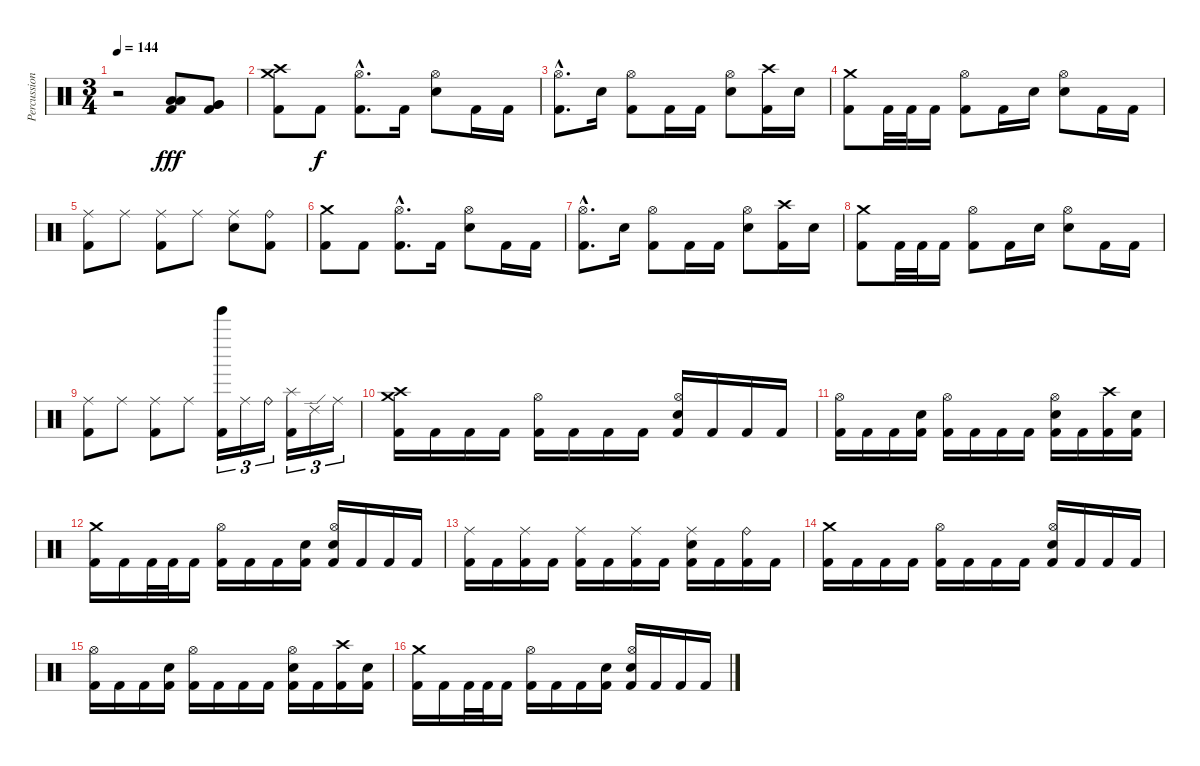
\track ("Percussion" "Percussion") {instrument percussion}
\staff {score}
\articulation defaults
\ts (3 4)
\tempo 144
\clef neutral
\ks c
r.2{dy f} ("Low Tom (hit)" "Low Tom (hit)" "Kick (hit) 2").8{dy fff} ("Very Low Tom (hit)" "Very Low Tom (hit)" "Kick (hit) 2").8 |
("Crash medium (hit)" "Crash high (hit)" "Kick (hit) 2").8 "Kick (hit) 2".8{dy f} ("Hi-Hat (open)"{hac} "Kick (hit) 2"{hac}).8{d} "Kick (hit) 2".16 ("Hi-Hat (open)" "Electric Snare (hit)").8 "Kick (hit) 2".16 "Kick (hit) 2".16 |
("Hi-Hat (open)"{hac} "Kick (hit) 2"{hac}).8{d} "Electric Snare (hit)".16 ("Hi-Hat (open)" "Kick (hit) 2").8 "Kick (hit) 2".16 "Kick (hit) 2".16 ("Hi-Hat (open)" "Electric Snare (hit)").8 ("Crash high (hit)" "Kick (hit) 2").16 "Electric Snare (hit)".16 |
("Crash medium (hit)" "Kick (hit) 2").8 "Kick (hit) 2".32 "Kick (hit) 2".32 "Kick (hit) 2".16 ("Hi-Hat (open)" "Kick (hit) 2").8 "Kick (hit) 2".16 "Electric Snare (hit)".16 ("Hi-Hat (open)" "Electric Snare (hit)").8 "Kick (hit) 2".16 "Kick (hit) 2".16 |
("Ride (middle)" "Kick (hit) 2").8 "Ride (middle)".8 ("Ride (middle)" "Kick (hit) 2").8 "Ride (middle)".8 ("Ride (middle)" "Electric Snare (hit)").8 ("Ride (bell)" "Kick (hit) 2").8 |
("Crash medium (hit)" "Kick (hit) 2").8 "Kick (hit) 2".8 ("Hi-Hat (open)"{hac} "Kick (hit) 2"{hac}).8{d} "Kick (hit) 2".16 ("Hi-Hat (open)" "Electric Snare (hit)").8 "Kick (hit) 2".16 "Kick (hit) 2".16 |
("Hi-Hat (open)"{hac} "Kick (hit) 2"{hac}).8{d} "Electric Snare (hit)".16 ("Hi-Hat (open)" "Kick (hit) 2").8 "Kick (hit) 2".16 "Kick (hit) 2".16 ("Hi-Hat (open)" "Electric Snare (hit)").8 ("Crash high (hit)" "Kick (hit) 2").16 "Electric Snare (hit)".16 |
("Crash medium (hit)" "Kick (hit) 2").8 "Kick (hit) 2".32 "Kick (hit) 2".32 "Kick (hit) 2".16 ("Hi-Hat (open)" "Kick (hit) 2").8 "Kick (hit) 2".16 "Electric Snare (hit)".16 ("Hi-Hat (open)" "Electric Snare (hit)").8 "Kick (hit) 2".16 "Kick (hit) 2".16 |
("Ride (middle)" "Kick (hit) 2").8 "Ride (middle)".8 ("Ride (middle)" "Kick (hit) 2").8 "Ride (middle)".8 ("Tinkle Bell (hit)" "Kick (hit) 2").16{tu (3 2)} "Ride (middle)".16{tu (3 2)} "Ride (bell)".16{tu (3 2)} ("Splash (hit)" "Kick (hit) 2").16{tu (3 2)} "Ride (edge) 2".16{tu (3 2)} "Ride (middle)".16{tu (3 2)} |
("Crash medium (hit)" "Crash high (hit)" "Kick (hit) 2").16 "Kick (hit) 2".16 "Kick (hit) 2".16 "Kick (hit) 2".16 ("Hi-Hat (open)" "Kick (hit) 2").16 "Kick (hit) 2".16 "Kick (hit) 2".16 "Kick (hit) 2".16 ("Hi-Hat (open)" "Electric Snare (hit)" "Kick (hit) 2").16 "Kick (hit) 2".16 "Kick (hit) 2".16 "Kick (hit) 2".16 |
("Hi-Hat (open)" "Kick (hit) 2").16 "Kick (hit) 2".16 "Kick (hit) 2".16 ("Electric Snare (hit)" "Kick (hit) 2").16 ("Hi-Hat (open)" "Kick (hit) 2").16 "Kick (hit) 2".16 "Kick (hit) 2".16 "Kick (hit) 2".16 ("Hi-Hat (open)" "Electric Snare (hit)" "Kick (hit) 2").16 "Kick (hit) 2".16 ("Crash high (hit)" "Kick (hit) 2").16 ("Electric Snare (hit)" "Kick (hit) 2").16 |
("Crash medium (hit)" "Kick (hit) 2").16 "Kick (hit) 2".16 "Kick (hit) 2".32 "Kick (hit) 2".32 "Kick (hit) 2".16 ("Hi-Hat (open)" "Kick (hit) 2").16 "Kick (hit) 2".16 "Kick (hit) 2".16 ("Electric Snare (hit)" "Kick (hit) 2").16 ("Hi-Hat (open)" "Electric Snare (hit)" "Kick (hit) 2").16 "Kick (hit) 2".16 "Kick (hit) 2".16 "Kick (hit) 2".16 |
("Ride (middle)" "Kick (hit) 2").16 "Kick (hit) 2".16 ("Ride (middle)" "Kick (hit) 2").16 "Kick (hit) 2".16 ("Ride (middle)" "Kick (hit) 2").16 "Kick (hit) 2".16 ("Ride (middle)" "Kick (hit) 2").16 "Kick (hit) 2".16 ("Ride (middle)" "Electric Snare (hit)" "Kick (hit) 2").16 "Kick (hit) 2".16 ("Ride (bell)" "Kick (hit) 2").16 "Kick (hit) 2".16 |
("Crash medium (hit)" "Kick (hit) 2").16 "Kick (hit) 2".16 "Kick (hit) 2".16 "Kick (hit) 2".16 ("Hi-Hat (open)" "Kick (hit) 2").16 "Kick (hit) 2".16 "Kick (hit) 2".16 "Kick (hit) 2".16 ("Hi-Hat (open)" "Electric Snare (hit)" "Kick (hit) 2").16 "Kick (hit) 2".16 "Kick (hit) 2".16 "Kick (hit) 2".16 |
("Hi-Hat (open)" "Kick (hit) 2").16 "Kick (hit) 2".16 "Kick (hit) 2".16 ("Electric Snare (hit)" "Kick (hit) 2").16 ("Hi-Hat (open)" "Kick (hit) 2").16 "Kick (hit) 2".16 "Kick (hit) 2".16 "Kick (hit) 2".16 ("Hi-Hat (open)" "Electric Snare (hit)" "Kick (hit) 2").16 "Kick (hit) 2".16 ("Crash high (hit)" "Kick (hit) 2").16 ("Electric Snare (hit)" "Kick (hit) 2").16 |
("Crash medium (hit)" "Kick (hit) 2").16 "Kick (hit) 2".16 "Kick (hit) 2".32 "Kick (hit) 2".32 "Kick (hit) 2".16 ("Hi-Hat (open)" "Kick (hit) 2").16 "Kick (hit) 2".16 "Kick (hit) 2".16 ("Electric Snare (hit)" "Kick (hit) 2").16 ("Hi-Hat (open)" "Electric Snare (hit)" "Kick (hit) 2").16 "Kick (hit) 2".16 "Kick (hit) 2".16 "Kick (hit) 2".16
